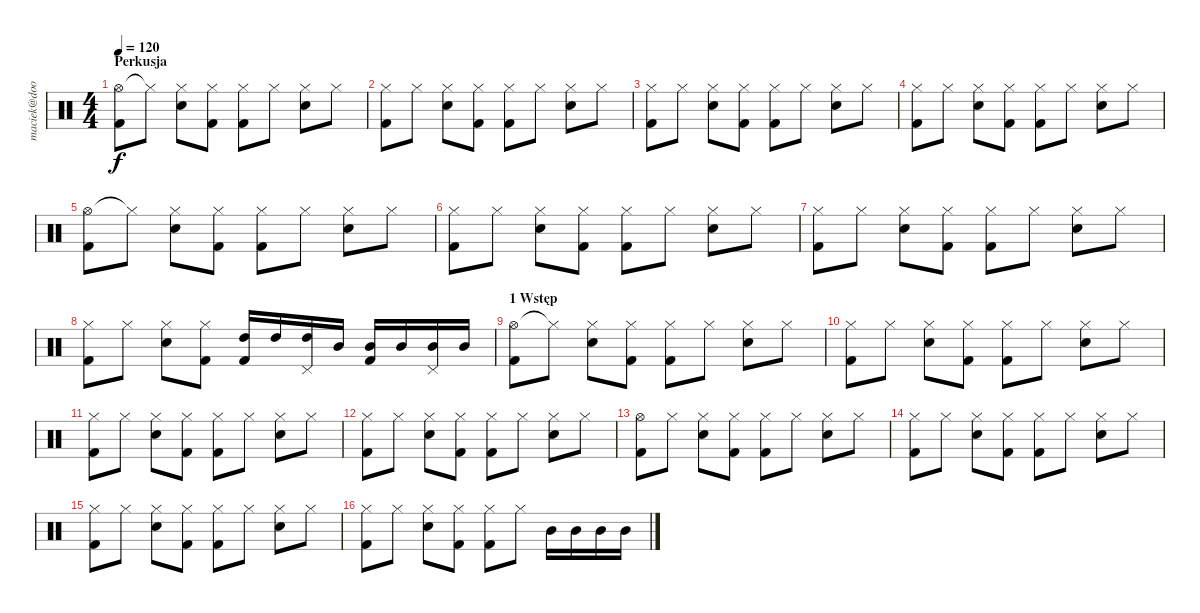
\track ("maciek@doorpol.com" "maciek@doo") {instrument percussion}
\staff {score}
\articulation defaults
\ts (4 4)
\section ("" "Perkusja")
\tempo 120
\clef neutral
\ks c
("Hi-Hat (open)" "Kick (hit) 2").8{dy f} "Hi-Hat (closed)"{t}.8 ("Hi-Hat (closed)" "Snare (hit) 2").8 ("Hi-Hat (closed)" "Kick (hit) 2").8 ("Hi-Hat (closed)" "Kick (hit) 2").8 "Hi-Hat (closed)".8 ("Hi-Hat (closed)" "Snare (hit) 2").8 "Hi-Hat (closed)".8 |
("Hi-Hat (closed)" "Kick (hit) 2").8 "Hi-Hat (closed)".8 ("Hi-Hat (closed)" "Snare (hit) 2").8 ("Hi-Hat (closed)" "Kick (hit) 2").8 ("Hi-Hat (closed)" "Kick (hit) 2").8 "Hi-Hat (closed)".8 ("Hi-Hat (closed)" "Snare (hit) 2").8 "Hi-Hat (closed)".8 |
("Hi-Hat (closed)" "Kick (hit) 2").8 "Hi-Hat (closed)".8 ("Hi-Hat (closed)" "Snare (hit) 2").8 ("Hi-Hat (closed)" "Kick (hit) 2").8 ("Hi-Hat (closed)" "Kick (hit) 2").8 "Hi-Hat (closed)".8 ("Hi-Hat (closed)" "Snare (hit) 2").8 "Hi-Hat (closed)".8 |
("Hi-Hat (closed)" "Kick (hit) 2").8 "Hi-Hat (closed)".8 ("Hi-Hat (closed)" "Snare (hit) 2").8 ("Hi-Hat (closed)" "Kick (hit) 2").8 ("Hi-Hat (closed)" "Kick (hit) 2").8 "Hi-Hat (closed)".8 ("Hi-Hat (closed)" "Snare (hit) 2").8 "Hi-Hat (closed)".8 |
("Hi-Hat (open)" "Kick (hit) 2").8 "Hi-Hat (closed)"{t}.8 ("Hi-Hat (closed)" "Snare (hit) 2").8 ("Hi-Hat (closed)" "Kick (hit) 2").8 ("Hi-Hat (closed)" "Kick (hit) 2").8 "Hi-Hat (closed)".8 ("Hi-Hat (closed)" "Snare (hit) 2").8 "Hi-Hat (closed)".8 |
("Hi-Hat (closed)" "Kick (hit) 2").8 "Hi-Hat (closed)".8 ("Hi-Hat (closed)" "Snare (hit) 2").8 ("Hi-Hat (closed)" "Kick (hit) 2").8 ("Hi-Hat (closed)" "Kick (hit) 2").8 "Hi-Hat (closed)".8 ("Hi-Hat (closed)" "Snare (hit) 2").8 "Hi-Hat (closed)".8 |
("Hi-Hat (closed)" "Kick (hit) 2").8 "Hi-Hat (closed)".8 ("Hi-Hat (closed)" "Snare (hit) 2").8 ("Hi-Hat (closed)" "Kick (hit) 2").8 ("Hi-Hat (closed)" "Kick (hit) 2").8 "Hi-Hat (closed)".8 ("Hi-Hat (closed)" "Snare (hit) 2").8 "Hi-Hat (closed)".8 |
("Hi-Hat (closed)" "Kick (hit) 2").8 "Hi-Hat (closed)".8 ("Hi-Hat (closed)" "Snare (hit) 2").8 ("Hi-Hat (closed)" "Kick (hit) 2").8 ("High Tom (hit)" "Kick (hit) 2").16 "High Tom (hit)".16 ("High Tom (hit)" "Pedal Hi-Hat (hit)").16 "Mid Tom (hit)".16 ("Mid Tom (hit)" "Kick (hit) 2").16 "Mid Tom (hit)".16 ("Mid Tom (hit)" "Pedal Hi-Hat (hit)").16 "Mid Tom (hit)".16 |
\section ("" "1 Wstęp")
("Hi-Hat (open)" "Kick (hit) 2").8 "Hi-Hat (closed)"{t}.8 ("Hi-Hat (closed)" "Snare (hit) 2").8 ("Hi-Hat (closed)" "Kick (hit) 2").8 ("Hi-Hat (closed)" "Kick (hit) 2").8 "Hi-Hat (closed)".8 ("Hi-Hat (closed)" "Snare (hit) 2").8 "Hi-Hat (closed)".8 |
("Hi-Hat (closed)" "Kick (hit) 2").8 "Hi-Hat (closed)".8 ("Hi-Hat (closed)" "Snare (hit) 2").8 ("Hi-Hat (closed)" "Kick (hit) 2").8 ("Hi-Hat (closed)" "Kick (hit) 2").8 "Hi-Hat (closed)".8 ("Hi-Hat (closed)" "Snare (hit) 2").8 "Hi-Hat (closed)".8 |
("Hi-Hat (closed)" "Kick (hit) 2").8 "Hi-Hat (closed)".8 ("Hi-Hat (closed)" "Snare (hit) 2").8 ("Hi-Hat (closed)" "Kick (hit) 2").8 ("Hi-Hat (closed)" "Kick (hit) 2").8 "Hi-Hat (closed)".8 ("Hi-Hat (closed)" "Snare (hit) 2").8 "Hi-Hat (closed)".8 |
("Hi-Hat (closed)" "Kick (hit) 2").8 "Hi-Hat (closed)".8 ("Hi-Hat (closed)" "Snare (hit) 2").8 ("Hi-Hat (closed)" "Kick (hit) 2").8 ("Hi-Hat (closed)" "Kick (hit) 2").8 "Hi-Hat (closed)".8 ("Hi-Hat (closed)" "Snare (hit) 2").8 "Hi-Hat (closed)".8 |
("Hi-Hat (open)" "Kick (hit) 2").8 "Hi-Hat (closed)".8 ("Hi-Hat (closed)" "Snare (hit) 2").8 ("Hi-Hat (closed)" "Kick (hit) 2").8 ("Hi-Hat (closed)" "Kick (hit) 2").8 "Hi-Hat (closed)".8 ("Hi-Hat (closed)" "Snare (hit) 2").8 "Hi-Hat (closed)".8 |
("Hi-Hat (closed)" "Kick (hit) 2").8 "Hi-Hat (closed)".8 ("Hi-Hat (closed)" "Snare (hit) 2").8 ("Hi-Hat (closed)" "Kick (hit) 2").8 ("Hi-Hat (closed)" "Kick (hit) 2").8 "Hi-Hat (closed)".8 ("Hi-Hat (closed)" "Snare (hit) 2").8 "Hi-Hat (closed)".8 |
("Hi-Hat (closed)" "Kick (hit) 2").8 "Hi-Hat (closed)".8 ("Hi-Hat (closed)" "Snare (hit) 2").8 ("Hi-Hat (closed)" "Kick (hit) 2").8 ("Hi-Hat (closed)" "Kick (hit) 2").8 "Hi-Hat (closed)".8 ("Hi-Hat (closed)" "Snare (hit) 2").8 "Hi-Hat (closed)".8 |
("Hi-Hat (closed)" "Kick (hit) 2").8 "Hi-Hat (closed)".8 ("Hi-Hat (closed)" "Snare (hit) 2").8 ("Hi-Hat (closed)" "Kick (hit) 2").8 ("Hi-Hat (closed)" "Kick (hit) 2").8 "Hi-Hat (closed)".8 "Mid Tom (hit)".16 "Mid Tom (hit)".16 "Mid Tom (hit)".16 "Mid Tom (hit)".16
